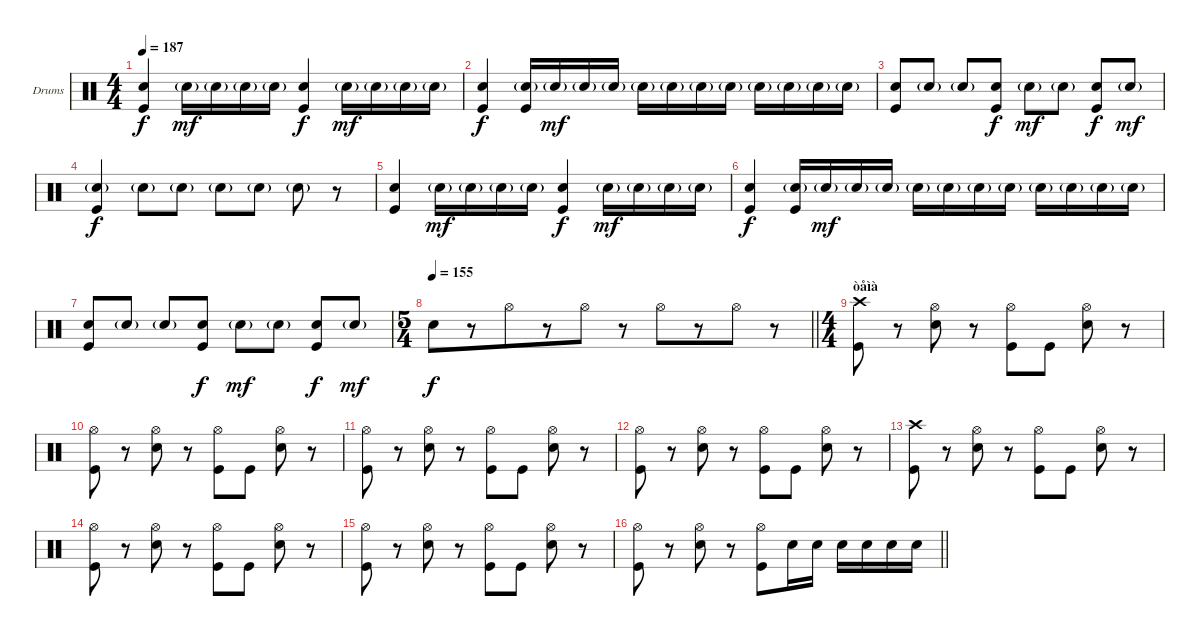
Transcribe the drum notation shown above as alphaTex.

\bracketExtendMode groupsimilarinstruments
\firstSystemTrackNameOrientation horizontal
\otherSystemsTrackNameOrientation horizontal
\track ("Drumkit" "Drums") {instrument percussion}
\staff {score}
\articulation defaults
\ts (4 4)
\tempo 187
\clef neutral
\ks c
("Snare (hit) 2" "Kick (hit)").4{dy f} "Snare (hit) 2"{g}.16{dy mf} "Snare (hit) 2"{g}.16 "Snare (hit) 2"{g}.16 "Snare (hit) 2"{g}.16 ("Snare (hit) 2" "Kick (hit)").4{dy f} "Snare (hit) 2"{g}.16{dy mf} "Snare (hit) 2"{g}.16 "Snare (hit) 2"{g}.16 "Snare (hit) 2"{g}.16 |
("Snare (hit) 2" "Kick (hit)").4{dy f} ("Snare (hit) 2"{g} "Kick (hit)").16 "Snare (hit) 2"{g}.16{dy mf} "Snare (hit) 2"{g}.16 "Snare (hit) 2"{g}.16 "Snare (hit) 2"{g}.16 "Snare (hit) 2"{g}.16 "Snare (hit) 2"{g}.16 "Snare (hit) 2"{g}.16 "Snare (hit) 2"{g}.16 "Snare (hit) 2"{g}.16 "Snare (hit) 2"{g}.16 "Snare (hit) 2"{g}.16 |
("Snare (hit) 2" "Kick (hit)").8 "Snare (hit) 2"{g}.8 "Snare (hit) 2"{g}.8 ("Snare (hit) 2" "Kick (hit)").8{dy f} "Snare (hit) 2"{g}.8{dy mf} "Snare (hit) 2"{g}.8 ("Snare (hit) 2" "Kick (hit)").8{dy f} "Snare (hit) 2"{g}.8{dy mf} |
("Snare (hit) 2"{g} "Kick (hit)").4{dy f} "Snare (hit) 2"{g}.8 "Snare (hit) 2"{g}.8 "Snare (hit) 2"{g}.8 "Snare (hit) 2"{g}.8 "Snare (hit) 2"{g}.8 r.8 |
("Snare (hit) 2" "Kick (hit)").4 "Snare (hit) 2"{g}.16{dy mf} "Snare (hit) 2"{g}.16 "Snare (hit) 2"{g}.16 "Snare (hit) 2"{g}.16 ("Snare (hit) 2" "Kick (hit)").4{dy f} "Snare (hit) 2"{g}.16{dy mf} "Snare (hit) 2"{g}.16 "Snare (hit) 2"{g}.16 "Snare (hit) 2"{g}.16 |
("Snare (hit) 2" "Kick (hit)").4{dy f} ("Snare (hit) 2"{g} "Kick (hit)").16 "Snare (hit) 2"{g}.16{dy mf} "Snare (hit) 2"{g}.16 "Snare (hit) 2"{g}.16 "Snare (hit) 2"{g}.16 "Snare (hit) 2"{g}.16 "Snare (hit) 2"{g}.16 "Snare (hit) 2"{g}.16 "Snare (hit) 2"{g}.16 "Snare (hit) 2"{g}.16 "Snare (hit) 2"{g}.16 "Snare (hit) 2"{g}.16 |
("Snare (hit) 2" "Kick (hit)").8 "Snare (hit) 2"{g}.8 "Snare (hit) 2"{g}.8 ("Snare (hit) 2" "Kick (hit)").8{dy f} "Snare (hit) 2"{g}.8{dy mf} "Snare (hit) 2"{g}.8 ("Snare (hit) 2" "Kick (hit)").8{dy f} "Snare (hit) 2"{g}.8{dy mf} |
\ts (5 4)
\beaming (8 6 4)
\tempo 155
\barLineRight lightlight "Snare (hit) 2".8{dy f}
r.8 "Hi-Hat (open)".8 r.8 "Hi-Hat (open)".8 r.8 "Hi-Hat (open)".8 r.8 "Hi-Hat (open)".8 r.8 |
\ts (4 4)
\beaming (8 2 2 2 2)
\section ("" "òåìà")
("Crash high (hit)" "Kick (hit)").8 r.8 ("Hi-Hat (open)" "Snare (hit) 2").8 r.8 ("Hi-Hat (open)" "Kick (hit)").8 "Kick (hit)".8 ("Hi-Hat (open)" "Snare (hit) 2").8 r.8 |
("Hi-Hat (open)" "Kick (hit)").8 r.8 ("Hi-Hat (open)" "Snare (hit) 2").8 r.8 ("Hi-Hat (open)" "Kick (hit)").8 "Kick (hit)".8 ("Hi-Hat (open)" "Snare (hit) 2").8 r.8 |
("Hi-Hat (open)" "Kick (hit)").8 r.8 ("Hi-Hat (open)" "Snare (hit) 2").8 r.8 ("Hi-Hat (open)" "Kick (hit)").8 "Kick (hit)".8 ("Hi-Hat (open)" "Snare (hit) 2").8 r.8 |
("Hi-Hat (open)" "Kick (hit)").8 r.8 ("Hi-Hat (open)" "Snare (hit) 2").8 r.8 ("Hi-Hat (open)" "Kick (hit)").8 "Kick (hit)".8 ("Hi-Hat (open)" "Snare (hit) 2").8 r.8 |
("Crash high (hit)" "Kick (hit)").8 r.8 ("Hi-Hat (open)" "Snare (hit) 2").8 r.8 ("Hi-Hat (open)" "Kick (hit)").8 "Kick (hit)".8 ("Hi-Hat (open)" "Snare (hit) 2").8 r.8 |
("Hi-Hat (open)" "Kick (hit)").8 r.8 ("Hi-Hat (open)" "Snare (hit) 2").8 r.8 ("Hi-Hat (open)" "Kick (hit)").8 "Kick (hit)".8 ("Hi-Hat (open)" "Snare (hit) 2").8 r.8 |
("Hi-Hat (open)" "Kick (hit)").8 r.8 ("Hi-Hat (open)" "Snare (hit) 2").8 r.8 ("Hi-Hat (open)" "Kick (hit)").8 "Kick (hit)".8 ("Hi-Hat (open)" "Snare (hit) 2").8 r.8 |
\barLineRight lightlight
("Hi-Hat (open)" "Kick (hit)").8 r.8 ("Hi-Hat (open)" "Snare (hit) 2").8 r.8 ("Hi-Hat (open)" "Kick (hit)").8 "Snare (hit) 2".16 "Snare (hit) 2".16 "Snare (hit) 2".16 "Snare (hit) 2".16 "Snare (hit) 2".16 "Snare (hit) 2".16
